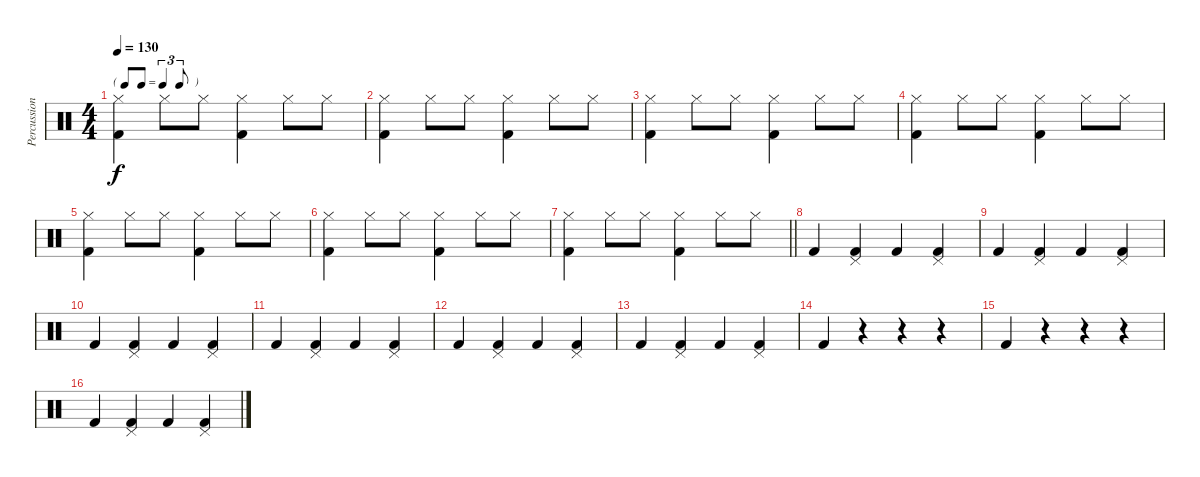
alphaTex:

\track ("Percussion" "Percussion") {instrument percussion}
\staff {score}
\articulation defaults
\ts (4 4)
\tf triplet8th
\tempo 130
\clef neutral
\ks c
("Hi-Hat (closed)" "Kick (hit) 2").4{dy f} "Hi-Hat (closed)".8 "Hi-Hat (closed)".8 ("Hi-Hat (closed)" "Kick (hit) 2").4 "Hi-Hat (closed)".8 "Hi-Hat (closed)".8 |
("Hi-Hat (closed)" "Kick (hit) 2").4 "Hi-Hat (closed)".8 "Hi-Hat (closed)".8 ("Hi-Hat (closed)" "Kick (hit) 2").4 "Hi-Hat (closed)".8 "Hi-Hat (closed)".8 |
("Hi-Hat (closed)" "Kick (hit) 2").4 "Hi-Hat (closed)".8 "Hi-Hat (closed)".8 ("Hi-Hat (closed)" "Kick (hit) 2").4 "Hi-Hat (closed)".8 "Hi-Hat (closed)".8 |
("Hi-Hat (closed)" "Kick (hit) 2").4 "Hi-Hat (closed)".8 "Hi-Hat (closed)".8 ("Hi-Hat (closed)" "Kick (hit) 2").4 "Hi-Hat (closed)".8 "Hi-Hat (closed)".8 |
("Hi-Hat (closed)" "Kick (hit) 2").4 "Hi-Hat (closed)".8 "Hi-Hat (closed)".8 ("Hi-Hat (closed)" "Kick (hit) 2").4 "Hi-Hat (closed)".8 "Hi-Hat (closed)".8 |
("Hi-Hat (closed)" "Kick (hit) 2").4 "Hi-Hat (closed)".8 "Hi-Hat (closed)".8 ("Hi-Hat (closed)" "Kick (hit) 2").4 "Hi-Hat (closed)".8 "Hi-Hat (closed)".8 |
\barLineRight lightlight
("Hi-Hat (closed)" "Kick (hit) 2").4 "Hi-Hat (closed)".8 "Hi-Hat (closed)".8 ("Hi-Hat (closed)" "Kick (hit) 2").4 "Hi-Hat (closed)".8 "Hi-Hat (closed)".8 |
"Kick (hit) 2".4 ("Pedal Hi-Hat (hit)" "Kick (hit) 2").4 "Kick (hit) 2".4 ("Pedal Hi-Hat (hit)" "Kick (hit) 2").4 |
"Kick (hit) 2".4 ("Pedal Hi-Hat (hit)" "Kick (hit) 2").4 "Kick (hit) 2".4 ("Pedal Hi-Hat (hit)" "Kick (hit) 2").4 |
"Kick (hit) 2".4 ("Pedal Hi-Hat (hit)" "Kick (hit) 2").4 "Kick (hit) 2".4 ("Pedal Hi-Hat (hit)" "Kick (hit) 2").4 |
"Kick (hit) 2".4 ("Pedal Hi-Hat (hit)" "Kick (hit) 2").4 "Kick (hit) 2".4 ("Pedal Hi-Hat (hit)" "Kick (hit) 2").4 |
"Kick (hit) 2".4 ("Pedal Hi-Hat (hit)" "Kick (hit) 2").4 "Kick (hit) 2".4 ("Pedal Hi-Hat (hit)" "Kick (hit) 2").4 |
"Kick (hit) 2".4 ("Pedal Hi-Hat (hit)" "Kick (hit) 2").4 "Kick (hit) 2".4 ("Pedal Hi-Hat (hit)" "Kick (hit) 2").4 |
"Kick (hit) 2".4 r.4 r.4 r.4 |
"Kick (hit) 2".4 r.4 r.4 r.4 |
"Kick (hit) 2".4 ("Pedal Hi-Hat (hit)" "Kick (hit) 2").4 "Kick (hit) 2".4 ("Pedal Hi-Hat (hit)" "Kick (hit) 2").4
